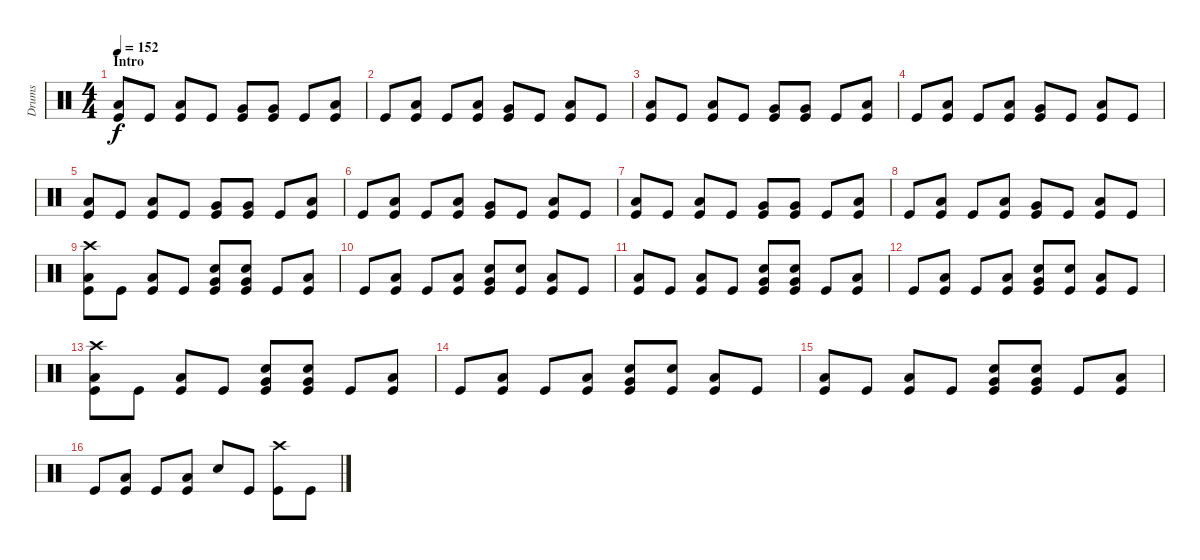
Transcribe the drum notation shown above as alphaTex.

\track ("Drums" "Drums") {instrument percussion}
\staff {score}
\articulation defaults
\ts (4 4)
\section ("" "Intro")
\tempo 152
\clef neutral
\ks c
("Kick (hit)" "Low Floor Tom (hit)").8{dy f} "Kick (hit)".8 ("Kick (hit)" "Low Floor Tom (hit)").8 "Kick (hit)".8 ("Kick (hit)" "Very Low Tom (hit)").8 ("Kick (hit)" "Very Low Tom (hit)").8 "Kick (hit)".8 ("Kick (hit)" "Low Floor Tom (hit)").8 |
"Kick (hit)".8 ("Low Floor Tom (hit)" "Kick (hit)").8 "Kick (hit)".8 ("Low Floor Tom (hit)" "Kick (hit)").8 ("Very Low Tom (hit)" "Kick (hit)").8 "Kick (hit)".8 ("Low Floor Tom (hit)" "Kick (hit)").8 "Kick (hit)".8 |
("Kick (hit)" "Low Floor Tom (hit)").8 "Kick (hit)".8 ("Kick (hit)" "Low Floor Tom (hit)").8 "Kick (hit)".8 ("Kick (hit)" "Very Low Tom (hit)").8 ("Kick (hit)" "Very Low Tom (hit)").8 "Kick (hit)".8 ("Kick (hit)" "Low Floor Tom (hit)").8 |
"Kick (hit)".8 ("Low Floor Tom (hit)" "Kick (hit)").8 "Kick (hit)".8 ("Low Floor Tom (hit)" "Kick (hit)").8 ("Very Low Tom (hit)" "Kick (hit)").8 "Kick (hit)".8 ("Low Floor Tom (hit)" "Kick (hit)").8 "Kick (hit)".8 |
("Kick (hit)" "Low Floor Tom (hit)").8 "Kick (hit)".8 ("Kick (hit)" "Low Floor Tom (hit)").8 "Kick (hit)".8 ("Kick (hit)" "Very Low Tom (hit)").8 ("Kick (hit)" "Very Low Tom (hit)").8 "Kick (hit)".8 ("Kick (hit)" "Low Floor Tom (hit)").8 |
"Kick (hit)".8 ("Low Floor Tom (hit)" "Kick (hit)").8 "Kick (hit)".8 ("Low Floor Tom (hit)" "Kick (hit)").8 ("Very Low Tom (hit)" "Kick (hit)").8 "Kick (hit)".8 ("Low Floor Tom (hit)" "Kick (hit)").8 "Kick (hit)".8 |
("Kick (hit)" "Low Floor Tom (hit)").8 "Kick (hit)".8 ("Kick (hit)" "Low Floor Tom (hit)").8 "Kick (hit)".8 ("Kick (hit)" "Very Low Tom (hit)").8 ("Kick (hit)" "Very Low Tom (hit)").8 "Kick (hit)".8 ("Kick (hit)" "Low Floor Tom (hit)").8 |
"Kick (hit)".8 ("Low Floor Tom (hit)" "Kick (hit)").8 "Kick (hit)".8 ("Low Floor Tom (hit)" "Kick (hit)").8 ("Very Low Tom (hit)" "Kick (hit)").8 "Kick (hit)".8 ("Low Floor Tom (hit)" "Kick (hit)").8 "Kick (hit)".8 |
("Crash high (hit)" "Kick (hit)" "Low Floor Tom (hit)").8 "Kick (hit)".8 ("Kick (hit)" "Low Floor Tom (hit)").8 "Kick (hit)".8 ("Snare (hit) 2" "Kick (hit)" "Very Low Tom (hit)").8 ("Snare (hit) 2" "Kick (hit)" "Very Low Tom (hit)").8 "Kick (hit)".8 ("Kick (hit)" "Low Floor Tom (hit)").8 |
"Kick (hit)".8 ("Low Floor Tom (hit)" "Kick (hit)").8 "Kick (hit)".8 ("Low Floor Tom (hit)" "Kick (hit)").8 ("Snare (hit) 2" "Very Low Tom (hit)" "Kick (hit)").8 ("Snare (hit) 2" "Kick (hit)").8 ("Low Floor Tom (hit)" "Kick (hit)").8 "Kick (hit)".8 |
("Kick (hit)" "Low Floor Tom (hit)").8 "Kick (hit)".8 ("Kick (hit)" "Low Floor Tom (hit)").8 "Kick (hit)".8 ("Snare (hit) 2" "Kick (hit)" "Very Low Tom (hit)").8 ("Snare (hit) 2" "Kick (hit)" "Very Low Tom (hit)").8 "Kick (hit)".8 ("Kick (hit)" "Low Floor Tom (hit)").8 |
"Kick (hit)".8 ("Low Floor Tom (hit)" "Kick (hit)").8 "Kick (hit)".8 ("Low Floor Tom (hit)" "Kick (hit)").8 ("Snare (hit) 2" "Very Low Tom (hit)" "Kick (hit)").8 ("Snare (hit) 2" "Kick (hit)").8 ("Low Floor Tom (hit)" "Kick (hit)").8 "Kick (hit)".8 |
("Crash high (hit)" "Kick (hit)" "Low Floor Tom (hit)").8 "Kick (hit)".8 ("Kick (hit)" "Low Floor Tom (hit)").8 "Kick (hit)".8 ("Snare (hit) 2" "Kick (hit)" "Very Low Tom (hit)").8 ("Snare (hit) 2" "Kick (hit)" "Very Low Tom (hit)").8 "Kick (hit)".8 ("Kick (hit)" "Low Floor Tom (hit)").8 |
"Kick (hit)".8 ("Low Floor Tom (hit)" "Kick (hit)").8 "Kick (hit)".8 ("Low Floor Tom (hit)" "Kick (hit)").8 ("Snare (hit) 2" "Very Low Tom (hit)" "Kick (hit)").8 ("Snare (hit) 2" "Kick (hit)").8 ("Low Floor Tom (hit)" "Kick (hit)").8 "Kick (hit)".8 |
("Kick (hit)" "Low Floor Tom (hit)").8 "Kick (hit)".8 ("Kick (hit)" "Low Floor Tom (hit)").8 "Kick (hit)".8 ("Snare (hit) 2" "Kick (hit)" "Very Low Tom (hit)").8 ("Snare (hit) 2" "Kick (hit)" "Very Low Tom (hit)").8 "Kick (hit)".8 ("Kick (hit)" "Low Floor Tom (hit)").8 |
"Kick (hit)".8 ("Low Floor Tom (hit)" "Kick (hit)").8 "Kick (hit)".8 ("Low Floor Tom (hit)" "Kick (hit)").8 "Snare (hit) 2".8 "Kick (hit)".8 ("Crash high (hit)" "Kick (hit)").8 "Kick (hit)".8
